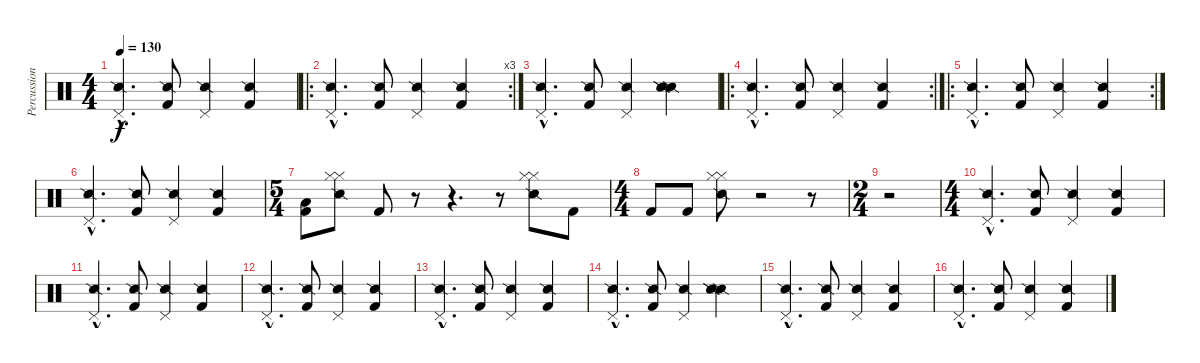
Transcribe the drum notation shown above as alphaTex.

\track ("Percussions" "Percussion") {instrument percussion}
\staff {score}
\articulation defaults
\ts (4 4)
\tempo 130
\clef neutral
\ks c
("Pedal Hi-Hat (hit)"{hac} "Snare (side stick) 2"{hac}).4{d dy f} ("Kick (hit) 2" "Snare (side stick) 2").8 ("Pedal Hi-Hat (hit)" "Snare (side stick) 2").4 ("Kick (hit) 2" "Snare (side stick) 2").4 |
\ro
\rc 3
("Pedal Hi-Hat (hit)"{hac} "Snare (side stick) 2"{hac}).4{d} ("Kick (hit) 2" "Snare (side stick) 2").8 ("Pedal Hi-Hat (hit)" "Snare (side stick) 2").4 ("Kick (hit) 2" "Snare (side stick) 2").4 |
("Pedal Hi-Hat (hit)"{hac} "Snare (side stick) 2"{hac}).4{d} ("Kick (hit) 2" "Snare (side stick) 2").8 ("Pedal Hi-Hat (hit)" "Snare (side stick) 2").4 ("Snare (side stick) 2" "Snare (side stick) 2" "Snare (side stick) 2").4 |
\ro
\rc 2
("Pedal Hi-Hat (hit)"{hac} "Snare (side stick) 2"{hac}).4{d} ("Kick (hit) 2" "Snare (side stick) 2").8 ("Pedal Hi-Hat (hit)" "Snare (side stick) 2").4 ("Kick (hit) 2" "Snare (side stick) 2").4 |
\ro
\rc 2
("Pedal Hi-Hat (hit)"{hac} "Snare (side stick) 2"{hac}).4{d} ("Kick (hit) 2" "Snare (side stick) 2").8 ("Pedal Hi-Hat (hit)" "Snare (side stick) 2").4 ("Kick (hit) 2" "Snare (side stick) 2").4 |
("Pedal Hi-Hat (hit)"{hac} "Snare (side stick) 2"{hac}).4{d} ("Kick (hit) 2" "Snare (side stick) 2").8 ("Pedal Hi-Hat (hit)" "Snare (side stick) 2").4 ("Kick (hit) 2" "Snare (side stick) 2").4 |
\ts (5 4)
("Kick (hit) 2" "Low Floor Tom (hit)").8 ("Snare (side stick) 2" "Hi-Hat (closed)" "Hi-Hat (closed)").8 "Kick (hit) 2".8 r.8 r.4{d} r.8 ("Snare (side stick) 2" "Hi-Hat (closed)" "Hi-Hat (closed)").8 "Kick (hit) 2".8 |
\ts (4 4)
"Kick (hit) 2".8 "Kick (hit) 2".8 ("Snare (side stick) 2" "Hi-Hat (closed)" "Hi-Hat (closed)").8 r.2 r.8 |
\ts (2 4)
r.2 |
\ts (4 4)
("Pedal Hi-Hat (hit)"{hac} "Snare (side stick) 2"{hac}).4{d} ("Kick (hit) 2" "Snare (side stick) 2").8 ("Pedal Hi-Hat (hit)" "Snare (side stick) 2").4 ("Kick (hit) 2" "Snare (side stick) 2").4 |
("Pedal Hi-Hat (hit)"{hac} "Snare (side stick) 2"{hac}).4{d} ("Kick (hit) 2" "Snare (side stick) 2").8 ("Pedal Hi-Hat (hit)" "Snare (side stick) 2").4 ("Kick (hit) 2" "Snare (side stick) 2").4 |
("Pedal Hi-Hat (hit)"{hac} "Snare (side stick) 2"{hac}).4{d} ("Kick (hit) 2" "Snare (side stick) 2").8 ("Pedal Hi-Hat (hit)" "Snare (side stick) 2").4 ("Kick (hit) 2" "Snare (side stick) 2").4 |
("Pedal Hi-Hat (hit)"{hac} "Snare (side stick) 2"{hac}).4{d} ("Kick (hit) 2" "Snare (side stick) 2").8 ("Pedal Hi-Hat (hit)" "Snare (side stick) 2").4 ("Kick (hit) 2" "Snare (side stick) 2").4 |
("Pedal Hi-Hat (hit)"{hac} "Snare (side stick) 2"{hac}).4{d} ("Kick (hit) 2" "Snare (side stick) 2").8 ("Pedal Hi-Hat (hit)" "Snare (side stick) 2").4 ("Snare (side stick) 2" "Snare (side stick) 2" "Snare (side stick) 2").4 |
("Pedal Hi-Hat (hit)"{hac} "Snare (side stick) 2"{hac}).4{d} ("Kick (hit) 2" "Snare (side stick) 2").8 ("Pedal Hi-Hat (hit)" "Snare (side stick) 2").4 ("Kick (hit) 2" "Snare (side stick) 2").4 |
("Pedal Hi-Hat (hit)"{hac} "Snare (side stick) 2"{hac}).4{d} ("Kick (hit) 2" "Snare (side stick) 2").8 ("Pedal Hi-Hat (hit)" "Snare (side stick) 2").4 ("Kick (hit) 2" "Snare (side stick) 2").4
